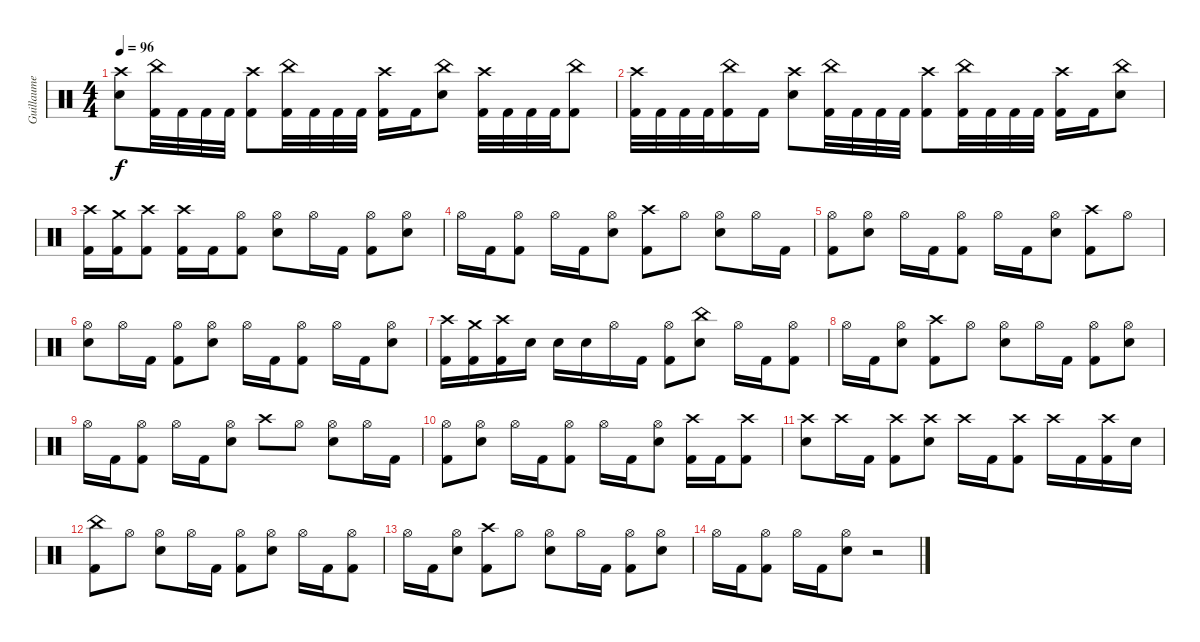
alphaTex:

\track ("Guillaume" "Guillaume") {instrument percussion}
\staff {score}
\articulation defaults
\ts (4 4)
\tempo 96
\clef neutral
\ks c
("Crash high (hit)" "Electric Snare (hit)").8{dy f} ("China (hit)" "Kick (hit) 2").32 "Kick (hit) 2".32 "Kick (hit) 2".32 "Kick (hit) 2".32 ("Crash high (hit)" "Kick (hit) 2").8 ("China (hit)" "Kick (hit) 2").32 "Kick (hit) 2".32 "Kick (hit) 2".32 "Kick (hit) 2".32 ("Crash high (hit)" "Kick (hit) 2").16 "Kick (hit) 2".16 ("China (hit)" "Electric Snare (hit)").8 ("Crash high (hit)" "Kick (hit) 2").32 "Kick (hit) 2".32 "Kick (hit) 2".32 "Kick (hit) 2".32 ("China (hit)" "Kick (hit) 2").8 |
("Crash high (hit)" "Kick (hit) 2").32 "Kick (hit) 2".32 "Kick (hit) 2".32 "Kick (hit) 2".32 ("China (hit)" "Kick (hit) 2").16 "Kick (hit) 2".16 ("Crash high (hit)" "Electric Snare (hit)").8 ("China (hit)" "Kick (hit) 2").32 "Kick (hit) 2".32 "Kick (hit) 2".32 "Kick (hit) 2".32 ("Crash high (hit)" "Kick (hit) 2").8 ("China (hit)" "Kick (hit) 2").32 "Kick (hit) 2".32 "Kick (hit) 2".32 "Kick (hit) 2".32 ("Crash high (hit)" "Kick (hit) 2").16 "Kick (hit) 2".16 ("China (hit)" "Electric Snare (hit)").8 |
\section ("" "")
("Crash high (hit)" "Kick (hit) 2").16 ("Crash medium (hit)" "Kick (hit) 2").16 ("Crash high (hit)" "Kick (hit) 2").8 ("Crash high (hit)" "Kick (hit) 2").16 "Kick (hit) 2".16 ("Hi-Hat (open)" "Kick (hit) 2").8 ("Hi-Hat (open)" "Electric Snare (hit)").8 "Hi-Hat (open)".16 "Kick (hit) 2".16 ("Hi-Hat (open)" "Kick (hit) 2").8 ("Hi-Hat (open)" "Electric Snare (hit)").8 |
"Hi-Hat (open)".16 "Kick (hit) 2".16 ("Hi-Hat (open)" "Kick (hit) 2").8 "Hi-Hat (open)".16 "Kick (hit) 2".16 ("Hi-Hat (open)" "Electric Snare (hit)").8 ("Crash high (hit)" "Kick (hit) 2").8 "Hi-Hat (open)".8 ("Hi-Hat (open)" "Electric Snare (hit)").8 "Hi-Hat (open)".16 "Kick (hit) 2".16 |
("Hi-Hat (open)" "Kick (hit) 2").8 ("Hi-Hat (open)" "Electric Snare (hit)").8 "Hi-Hat (open)".16 "Kick (hit) 2".16 ("Hi-Hat (open)" "Kick (hit) 2").8 "Hi-Hat (open)".16 "Kick (hit) 2".16 ("Hi-Hat (open)" "Electric Snare (hit)").8 ("Crash high (hit)" "Kick (hit) 2").8 "Hi-Hat (open)".8 |
("Hi-Hat (open)" "Electric Snare (hit)").8 "Hi-Hat (open)".16 "Kick (hit) 2".16 ("Hi-Hat (open)" "Kick (hit) 2").8 ("Hi-Hat (open)" "Electric Snare (hit)").8 "Hi-Hat (open)".16 "Kick (hit) 2".16 ("Hi-Hat (open)" "Kick (hit) 2").8 "Hi-Hat (open)".16 "Kick (hit) 2".16 ("Hi-Hat (open)" "Electric Snare (hit)").8 |
\section ("" "")
("Crash high (hit)" "Kick (hit) 2").16 ("Crash medium (hit)" "Kick (hit) 2").16 ("Crash high (hit)" "Kick (hit) 2").16 "Electric Snare (hit)".16 "Electric Snare (hit)".16 "Electric Snare (hit)".16 "Hi-Hat (open)".16 "Kick (hit) 2".16 ("Hi-Hat (open)" "Kick (hit) 2").8 ("China (hit)" "Electric Snare (hit)").8 "Hi-Hat (open)".16 "Kick (hit) 2".16 ("Hi-Hat (open)" "Kick (hit) 2").8 |
"Hi-Hat (open)".16 "Kick (hit) 2".16 ("Hi-Hat (open)" "Electric Snare (hit)").8 ("Crash high (hit)" "Kick (hit) 2").8 "Hi-Hat (open)".8 ("Hi-Hat (open)" "Electric Snare (hit)").8 "Hi-Hat (open)".16 "Kick (hit) 2".16 ("Hi-Hat (open)" "Kick (hit) 2").8 ("Hi-Hat (open)" "Electric Snare (hit)").8 |
"Hi-Hat (open)".16 "Kick (hit) 2".16 ("Hi-Hat (open)" "Kick (hit) 2").8 "Hi-Hat (open)".16 "Kick (hit) 2".16 ("Hi-Hat (open)" "Electric Snare (hit)").8 "Crash high (hit)".8 "Hi-Hat (open)".8 ("Hi-Hat (open)" "Electric Snare (hit)").8 "Hi-Hat (open)".16 "Kick (hit) 2".16 |
("Hi-Hat (open)" "Kick (hit) 2").8 ("Hi-Hat (open)" "Electric Snare (hit)").8 "Hi-Hat (open)".16 "Kick (hit) 2".16 ("Hi-Hat (open)" "Kick (hit) 2").8 "Hi-Hat (open)".16 "Kick (hit) 2".16 ("Hi-Hat (open)" "Electric Snare (hit)").8 ("Crash high (hit)" "Kick (hit) 2").16 "Kick (hit) 2".16 ("Crash high (hit)" "Kick (hit) 2").8 |
("Crash high (hit)" "Electric Snare (hit)").8 "Crash high (hit)".16 "Kick (hit) 2".16 ("Crash high (hit)" "Kick (hit) 2").8 ("Crash high (hit)" "Electric Snare (hit)").8 "Crash high (hit)".16 "Kick (hit) 2".16 ("Crash high (hit)" "Kick (hit) 2").8 "Crash high (hit)".16 "Kick (hit) 2".16 ("Crash high (hit)" "Kick (hit) 2").16 "Electric Snare (hit)".16 |
("China (hit)" "Kick (hit) 2").8 "Hi-Hat (open)".8 ("Hi-Hat (open)" "Electric Snare (hit)").8 "Hi-Hat (open)".16 "Kick (hit) 2".16 ("Hi-Hat (open)" "Kick (hit) 2").8 ("Hi-Hat (open)" "Electric Snare (hit)").8 "Hi-Hat (open)".16 "Kick (hit) 2".16 ("Hi-Hat (open)" "Kick (hit) 2").8 |
"Hi-Hat (open)".16 "Kick (hit) 2".16 ("Hi-Hat (open)" "Electric Snare (hit)").8 ("Crash high (hit)" "Kick (hit) 2").8 "Hi-Hat (open)".8 ("Hi-Hat (open)" "Electric Snare (hit)").8 "Hi-Hat (open)".16 "Kick (hit) 2".16 ("Hi-Hat (open)" "Kick (hit) 2").8 ("Hi-Hat (open)" "Electric Snare (hit)").8 |
"Hi-Hat (open)".16 "Kick (hit) 2".16 ("Hi-Hat (open)" "Kick (hit) 2").8 "Hi-Hat (open)".16 "Kick (hit) 2".16 ("Hi-Hat (open)" "Electric Snare (hit)").8 r.2
